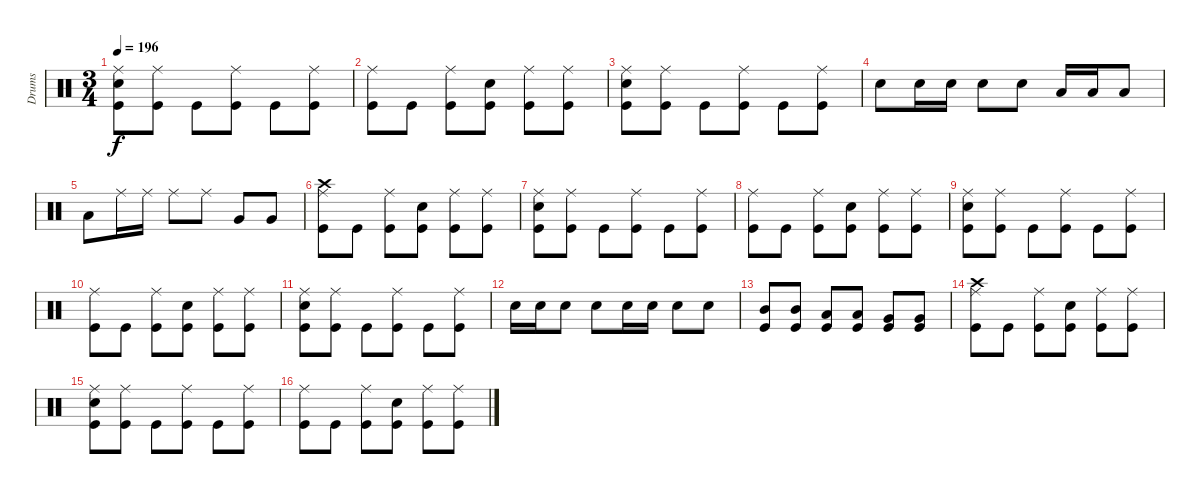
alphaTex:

\track ("Drums" "Drums") {instrument percussion}
\staff {score}
\articulation defaults
\ts (3 4)
\tempo 196
\clef neutral
\ks c
("Ride (middle)" "Electric Snare (hit)" "Kick (hit)").8{dy f} ("Ride (middle)" "Kick (hit)").8 "Kick (hit)".8 ("Ride (middle)" "Kick (hit)").8 "Kick (hit)".8 ("Ride (middle)" "Kick (hit)").8 |
("Ride (middle)" "Kick (hit)").8 "Kick (hit)".8 ("Ride (middle)" "Kick (hit)").8 ("Electric Snare (hit)" "Kick (hit)").8 ("Ride (middle)" "Kick (hit)").8 ("Ride (middle)" "Kick (hit)").8 |
("Ride (middle)" "Electric Snare (hit)" "Kick (hit)").8 ("Ride (middle)" "Kick (hit)").8 "Kick (hit)".8 ("Ride (middle)" "Kick (hit)").8 "Kick (hit)".8 ("Ride (middle)" "Kick (hit)").8 |
"Electric Snare (hit)".8 "Electric Snare (hit)".16 "Electric Snare (hit)".16 "Electric Snare (hit)".8 "Electric Snare (hit)".8 "Low Tom (hit)".16 "Low Tom (hit)".16 "Low Tom (hit)".8 |
"Low Tom (hit)".8 "Ride (middle)".16 "Ride (middle)".16 "Ride (middle)".8 "Ride (middle)".8 "Very Low Tom (hit)".8 "Very Low Tom (hit)".8 |
("Crash high (hit)" "Ride (middle)" "Kick (hit)").8{volume 14} "Kick (hit)".8 ("Ride (middle)" "Kick (hit)").8 ("Electric Snare (hit)" "Kick (hit)").8 ("Ride (middle)" "Kick (hit)").8 ("Ride (middle)" "Kick (hit)").8 |
("Ride (middle)" "Electric Snare (hit)" "Kick (hit)").8 ("Ride (middle)" "Kick (hit)").8 "Kick (hit)".8 ("Ride (middle)" "Kick (hit)").8 "Kick (hit)".8 ("Ride (middle)" "Kick (hit)").8 |
("Ride (middle)" "Kick (hit)").8 "Kick (hit)".8 ("Ride (middle)" "Kick (hit)").8 ("Electric Snare (hit)" "Kick (hit)").8 ("Ride (middle)" "Kick (hit)").8 ("Ride (middle)" "Kick (hit)").8 |
("Ride (middle)" "Electric Snare (hit)" "Kick (hit)").8 ("Ride (middle)" "Kick (hit)").8 "Kick (hit)".8 ("Ride (middle)" "Kick (hit)").8 "Kick (hit)".8 ("Ride (middle)" "Kick (hit)").8 |
("Ride (middle)" "Kick (hit)").8 "Kick (hit)".8 ("Ride (middle)" "Kick (hit)").8 ("Electric Snare (hit)" "Kick (hit)").8 ("Ride (middle)" "Kick (hit)").8 ("Ride (middle)" "Kick (hit)").8 |
("Ride (middle)" "Electric Snare (hit)" "Kick (hit)").8 ("Ride (middle)" "Kick (hit)").8 "Kick (hit)".8 ("Ride (middle)" "Kick (hit)").8 "Kick (hit)".8 ("Ride (middle)" "Kick (hit)").8 |
"Electric Snare (hit)".16 "Electric Snare (hit)".16 "Electric Snare (hit)".8 "Electric Snare (hit)".8 "Electric Snare (hit)".16 "Electric Snare (hit)".16 "Electric Snare (hit)".8 "Electric Snare (hit)".8 |
("Mid Tom (hit)" "Kick (hit)").8 ("Mid Tom (hit)" "Kick (hit)").8 ("Low Tom (hit)" "Kick (hit)").8 ("Low Tom (hit)" "Kick (hit)").8 ("Very Low Tom (hit)" "Kick (hit)").8 ("Very Low Tom (hit)" "Kick (hit)").8 |
("Crash high (hit)" "Ride (middle)" "Kick (hit)").8{volume 13} "Kick (hit)".8 ("Ride (middle)" "Kick (hit)").8 ("Electric Snare (hit)" "Kick (hit)").8 ("Ride (middle)" "Kick (hit)").8 ("Ride (middle)" "Kick (hit)").8 |
("Ride (middle)" "Electric Snare (hit)" "Kick (hit)").8 ("Ride (middle)" "Kick (hit)").8 "Kick (hit)".8 ("Ride (middle)" "Kick (hit)").8 "Kick (hit)".8 ("Ride (middle)" "Kick (hit)").8 |
("Ride (middle)" "Kick (hit)").8 "Kick (hit)".8 ("Ride (middle)" "Kick (hit)").8 ("Electric Snare (hit)" "Kick (hit)").8 ("Ride (middle)" "Kick (hit)").8 ("Ride (middle)" "Kick (hit)").8
